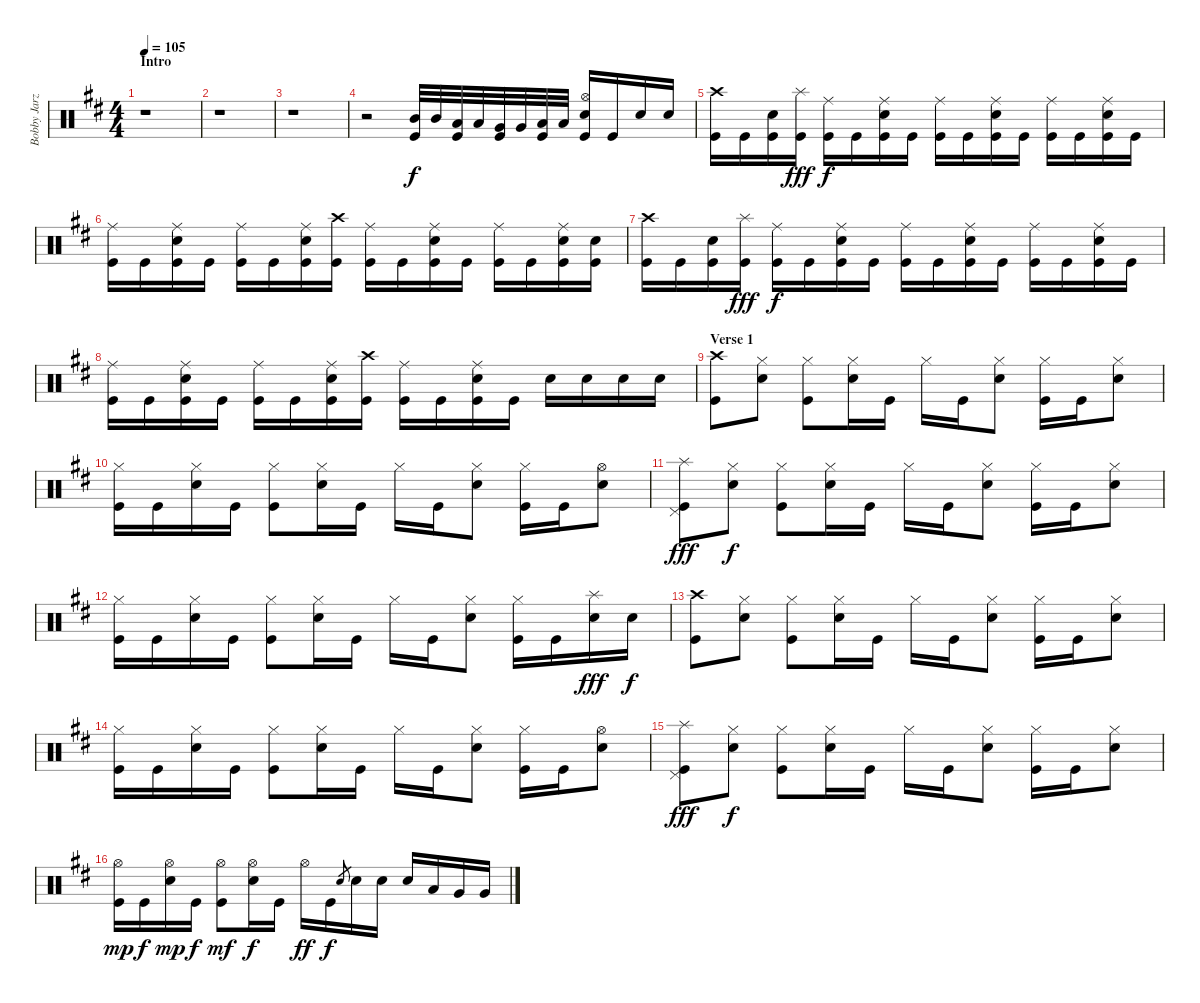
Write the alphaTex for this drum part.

\track ("Bobby Jarzombek" "Bobby Jarz") {instrument percussion}
\staff {score}
\articulation defaults
\ts (4 4)
\section ("" "Intro")
\tempo 105
\clef neutral
\ks d
r.1{dy f} |
r.1 |
r.1 |
r.2 ("Kick (hit)" "Mid Tom (hit)").32 "Mid Tom (hit)".32 ("Kick (hit)" "Low Tom (hit)").32 "Low Tom (hit)".32 ("Kick (hit)" "Very Low Tom (hit)").32 "Very Low Tom (hit)".32 ("Kick (hit)" "Low Floor Tom (hit)").32 "Low Floor Tom (hit)".32 ("Kick (hit)" "Hi-Hat (open)" "Electric Snare (hit)").16 "Kick (hit)".16 "Electric Snare (hit)".16 "Electric Snare (hit)".16 |
("Crash high (hit)" "Kick (hit)").16 "Kick (hit)".16 ("Electric Snare (hit)" "Kick (hit)").16 ("Splash (hit)" "Kick (hit)").16{dy fff} ("Ride (middle)" "Kick (hit)").16{dy f} "Kick (hit)".16 ("Ride (middle)" "Electric Snare (hit)" "Kick (hit)").16 "Kick (hit)".16 ("Ride (middle)" "Kick (hit)").16 "Kick (hit)".16 ("Ride (middle)" "Electric Snare (hit)" "Kick (hit)").16 "Kick (hit)".16 ("Ride (middle)" "Kick (hit)").16 "Kick (hit)".16 ("Ride (middle)" "Electric Snare (hit)" "Kick (hit)").16 "Kick (hit)".16 |
("Ride (middle)" "Kick (hit)").16 "Kick (hit)".16 ("Ride (middle)" "Electric Snare (hit)" "Kick (hit)").16 "Kick (hit)".16 ("Ride (middle)" "Kick (hit)").16 "Kick (hit)".16 ("Ride (middle)" "Electric Snare (hit)" "Kick (hit)").16 ("Crash high (hit)" "Kick (hit)").16 ("Ride (middle)" "Kick (hit)").16 "Kick (hit)".16 ("Ride (middle)" "Electric Snare (hit)" "Kick (hit)").16 "Kick (hit)".16 ("Ride (middle)" "Kick (hit)").16 "Kick (hit)".16 ("Ride (middle)" "Electric Snare (hit)" "Kick (hit)").16 ("Electric Snare (hit)" "Kick (hit)").16 |
("Crash high (hit)" "Kick (hit)").16 "Kick (hit)".16 ("Electric Snare (hit)" "Kick (hit)").16 ("Splash (hit)" "Kick (hit)").16{dy fff} ("Ride (middle)" "Kick (hit)").16{dy f} "Kick (hit)".16 ("Ride (middle)" "Electric Snare (hit)" "Kick (hit)").16 "Kick (hit)".16 ("Ride (middle)" "Kick (hit)").16 "Kick (hit)".16 ("Ride (middle)" "Electric Snare (hit)" "Kick (hit)").16 "Kick (hit)".16 ("Ride (middle)" "Kick (hit)").16 "Kick (hit)".16 ("Ride (middle)" "Electric Snare (hit)" "Kick (hit)").16 "Kick (hit)".16 |
("Ride (middle)" "Kick (hit)").16 "Kick (hit)".16 ("Ride (middle)" "Electric Snare (hit)" "Kick (hit)").16 "Kick (hit)".16 ("Ride (middle)" "Kick (hit)").16 "Kick (hit)".16 ("Ride (middle)" "Electric Snare (hit)" "Kick (hit)").16 ("Crash high (hit)" "Kick (hit)").16 ("Ride (middle)" "Kick (hit)").16 "Kick (hit)".16 ("Ride (middle)" "Electric Snare (hit)" "Kick (hit)").16 "Kick (hit)".16 "Electric Snare (hit)".16 "Electric Snare (hit)".16 "Electric Snare (hit)".16 "Electric Snare (hit)".16 |
\section ("" "Verse 1")
("Crash high (hit)" "Kick (hit)").8 ("Hi-Hat (closed)" "Electric Snare (hit)").8 ("Hi-Hat (closed)" "Kick (hit)").8 ("Hi-Hat (closed)" "Electric Snare (hit)").16 "Kick (hit)".16 "Hi-Hat (closed)".16 "Kick (hit)".16 ("Hi-Hat (closed)" "Electric Snare (hit)").8 ("Hi-Hat (closed)" "Kick (hit)").16 "Kick (hit)".16 ("Hi-Hat (closed)" "Electric Snare (hit)").8 |
("Hi-Hat (closed)" "Kick (hit)").16 "Kick (hit)".16 ("Hi-Hat (closed)" "Electric Snare (hit)").16 "Kick (hit)".16 ("Hi-Hat (closed)" "Kick (hit)").8 ("Hi-Hat (closed)" "Electric Snare (hit)").16 "Kick (hit)".16 "Hi-Hat (closed)".16 "Kick (hit)".16 ("Hi-Hat (closed)" "Electric Snare (hit)").8 ("Hi-Hat (closed)" "Kick (hit)").16 "Kick (hit)".16 ("Hi-Hat (open)" "Electric Snare (hit)").8 |
("Splash (hit)" "Pedal Hi-Hat (hit)" "Kick (hit)").8{dy fff} ("Hi-Hat (closed)" "Electric Snare (hit)").8{dy f} ("Hi-Hat (closed)" "Kick (hit)").8 ("Hi-Hat (closed)" "Electric Snare (hit)").16 "Kick (hit)".16 "Hi-Hat (closed)".16 "Kick (hit)".16 ("Hi-Hat (closed)" "Electric Snare (hit)").8 ("Hi-Hat (closed)" "Kick (hit)").16 "Kick (hit)".16 ("Hi-Hat (closed)" "Electric Snare (hit)").8 |
("Hi-Hat (closed)" "Kick (hit)").16 "Kick (hit)".16 ("Hi-Hat (closed)" "Electric Snare (hit)").16 "Kick (hit)".16 ("Hi-Hat (closed)" "Kick (hit)").8 ("Hi-Hat (closed)" "Electric Snare (hit)").16 "Kick (hit)".16 "Hi-Hat (closed)".16 "Kick (hit)".16 ("Hi-Hat (closed)" "Electric Snare (hit)").8 ("Hi-Hat (closed)" "Kick (hit)").16 "Kick (hit)".16 ("Splash (hit)" "Electric Snare (hit)").16{dy fff} "Electric Snare (hit)".16{dy f} |
("Crash high (hit)" "Kick (hit)").8 ("Hi-Hat (closed)" "Electric Snare (hit)").8 ("Hi-Hat (closed)" "Kick (hit)").8 ("Hi-Hat (closed)" "Electric Snare (hit)").16 "Kick (hit)".16 "Hi-Hat (closed)".16 "Kick (hit)".16 ("Hi-Hat (closed)" "Electric Snare (hit)").8 ("Hi-Hat (closed)" "Kick (hit)").16 "Kick (hit)".16 ("Hi-Hat (closed)" "Electric Snare (hit)").8 |
("Hi-Hat (closed)" "Kick (hit)").16 "Kick (hit)".16 ("Hi-Hat (closed)" "Electric Snare (hit)").16 "Kick (hit)".16 ("Hi-Hat (closed)" "Kick (hit)").8 ("Hi-Hat (closed)" "Electric Snare (hit)").16 "Kick (hit)".16 "Hi-Hat (closed)".16 "Kick (hit)".16 ("Hi-Hat (closed)" "Electric Snare (hit)").8 ("Hi-Hat (closed)" "Kick (hit)").16 "Kick (hit)".16 ("Hi-Hat (open)" "Electric Snare (hit)").8 |
("Splash (hit)" "Pedal Hi-Hat (hit)" "Kick (hit)").8{dy fff} ("Hi-Hat (closed)" "Electric Snare (hit)").8{dy f} ("Hi-Hat (closed)" "Kick (hit)").8 ("Hi-Hat (closed)" "Electric Snare (hit)").16 "Kick (hit)".16 "Hi-Hat (closed)".16 "Kick (hit)".16 ("Hi-Hat (closed)" "Electric Snare (hit)").8 ("Hi-Hat (closed)" "Kick (hit)").16 "Kick (hit)".16 ("Hi-Hat (closed)" "Electric Snare (hit)").8 |
("Hi-Hat (open)" "Kick (hit)").16{dy mp} "Kick (hit)".16{dy f} ("Hi-Hat (open)" "Electric Snare (hit)").16{dy mp} "Kick (hit)".16{dy f} ("Hi-Hat (open)" "Kick (hit)").8{dy mf} ("Hi-Hat (open)" "Electric Snare (hit)").16{dy f} "Kick (hit)".16 "Hi-Hat (open)".16{dy ff} "Kick (hit)".16{dy f} "Electric Snare (hit)".8{gr} "Electric Snare (hit)".16 "Electric Snare (hit)".16 "Electric Snare (hit)".16 "Low Tom (hit)".16 "Very Low Tom (hit)".16 "Very Low Tom (hit)".16
